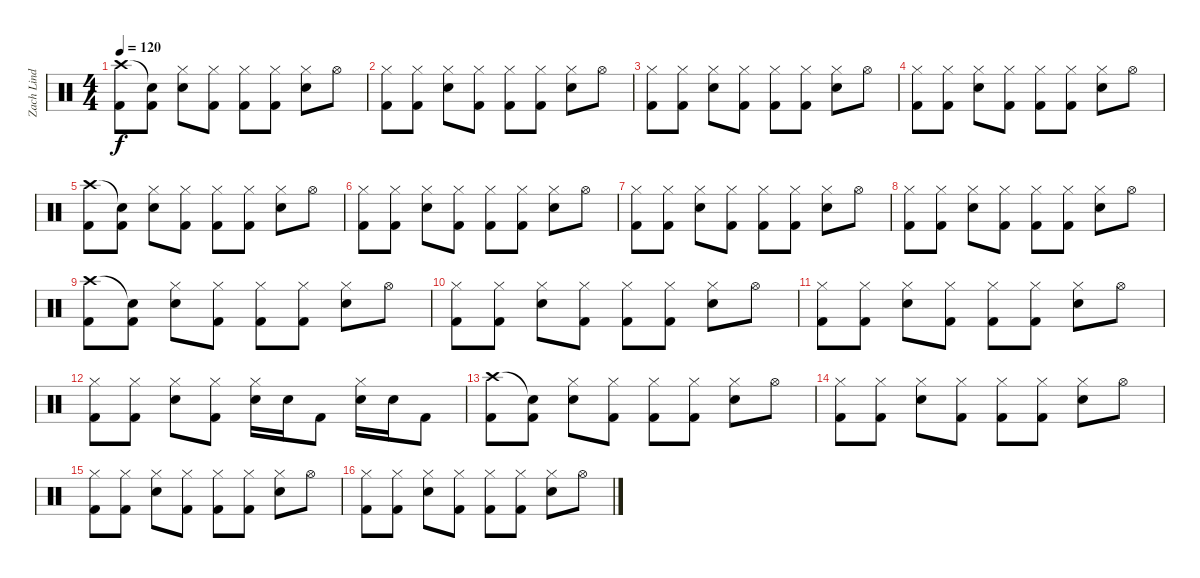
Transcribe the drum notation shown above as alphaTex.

\track ("Zach Lind (Drums)" "Zach Lind ") {instrument percussion}
\staff {score}
\articulation defaults
\ts (4 4)
\tempo 120
\clef neutral
\ks c
("Crash high (hit)" "Kick (hit) 2").8{dy f} ("Snare (hit)"{t} "Kick (hit) 2").8 ("Hi-Hat (closed)" "Electric Snare (hit)").8 ("Hi-Hat (closed)" "Kick (hit) 2").8 ("Hi-Hat (closed)" "Kick (hit) 2").8 ("Hi-Hat (closed)" "Kick (hit) 2").8 ("Hi-Hat (closed)" "Electric Snare (hit)").8 "Hi-Hat (open)".8 |
("Hi-Hat (closed)" "Kick (hit) 2").8 ("Hi-Hat (closed)" "Kick (hit) 2").8 ("Hi-Hat (closed)" "Electric Snare (hit)").8 ("Hi-Hat (closed)" "Kick (hit) 2").8 ("Hi-Hat (closed)" "Kick (hit) 2").8 ("Hi-Hat (closed)" "Kick (hit) 2").8 ("Hi-Hat (closed)" "Electric Snare (hit)").8 "Hi-Hat (open)".8 |
("Hi-Hat (closed)" "Kick (hit) 2").8 ("Hi-Hat (closed)" "Kick (hit) 2").8 ("Hi-Hat (closed)" "Electric Snare (hit)").8 ("Hi-Hat (closed)" "Kick (hit) 2").8 ("Hi-Hat (closed)" "Kick (hit) 2").8 ("Hi-Hat (closed)" "Kick (hit) 2").8 ("Hi-Hat (closed)" "Electric Snare (hit)").8 "Hi-Hat (open)".8 |
("Hi-Hat (closed)" "Kick (hit) 2").8 ("Hi-Hat (closed)" "Kick (hit) 2").8 ("Hi-Hat (closed)" "Electric Snare (hit)").8 ("Hi-Hat (closed)" "Kick (hit) 2").8 ("Hi-Hat (closed)" "Kick (hit) 2").8 ("Hi-Hat (closed)" "Kick (hit) 2").8 ("Hi-Hat (closed)" "Electric Snare (hit)").8 "Hi-Hat (open)".8 |
("Crash high (hit)" "Kick (hit) 2").8 ("Snare (hit)"{t} "Kick (hit) 2").8 ("Hi-Hat (closed)" "Electric Snare (hit)").8 ("Hi-Hat (closed)" "Kick (hit) 2").8 ("Hi-Hat (closed)" "Kick (hit) 2").8 ("Hi-Hat (closed)" "Kick (hit) 2").8 ("Hi-Hat (closed)" "Electric Snare (hit)").8 "Hi-Hat (open)".8 |
("Hi-Hat (closed)" "Kick (hit) 2").8 ("Hi-Hat (closed)" "Kick (hit) 2").8 ("Hi-Hat (closed)" "Electric Snare (hit)").8 ("Hi-Hat (closed)" "Kick (hit) 2").8 ("Hi-Hat (closed)" "Kick (hit) 2").8 ("Hi-Hat (closed)" "Kick (hit) 2").8 ("Hi-Hat (closed)" "Electric Snare (hit)").8 "Hi-Hat (open)".8 |
("Hi-Hat (closed)" "Kick (hit) 2").8 ("Hi-Hat (closed)" "Kick (hit) 2").8 ("Hi-Hat (closed)" "Electric Snare (hit)").8 ("Hi-Hat (closed)" "Kick (hit) 2").8 ("Hi-Hat (closed)" "Kick (hit) 2").8 ("Hi-Hat (closed)" "Kick (hit) 2").8 ("Hi-Hat (closed)" "Electric Snare (hit)").8 "Hi-Hat (open)".8 |
("Hi-Hat (closed)" "Kick (hit) 2").8 ("Hi-Hat (closed)" "Kick (hit) 2").8 ("Hi-Hat (closed)" "Electric Snare (hit)").8 ("Hi-Hat (closed)" "Kick (hit) 2").8 ("Hi-Hat (closed)" "Kick (hit) 2").8 ("Hi-Hat (closed)" "Kick (hit) 2").8 ("Hi-Hat (closed)" "Electric Snare (hit)").8 "Hi-Hat (open)".8 |
("Crash high (hit)" "Kick (hit) 2").8 ("Snare (hit)"{t} "Kick (hit) 2").8 ("Hi-Hat (closed)" "Electric Snare (hit)").8 ("Hi-Hat (closed)" "Kick (hit) 2").8 ("Hi-Hat (closed)" "Kick (hit) 2").8 ("Hi-Hat (closed)" "Kick (hit) 2").8 ("Hi-Hat (closed)" "Electric Snare (hit)").8 "Hi-Hat (open)".8 |
("Hi-Hat (closed)" "Kick (hit) 2").8 ("Hi-Hat (closed)" "Kick (hit) 2").8 ("Hi-Hat (closed)" "Electric Snare (hit)").8 ("Hi-Hat (closed)" "Kick (hit) 2").8 ("Hi-Hat (closed)" "Kick (hit) 2").8 ("Hi-Hat (closed)" "Kick (hit) 2").8 ("Hi-Hat (closed)" "Electric Snare (hit)").8 "Hi-Hat (open)".8 |
("Hi-Hat (closed)" "Kick (hit) 2").8 ("Hi-Hat (closed)" "Kick (hit) 2").8 ("Hi-Hat (closed)" "Electric Snare (hit)").8 ("Hi-Hat (closed)" "Kick (hit) 2").8 ("Hi-Hat (closed)" "Kick (hit) 2").8 ("Hi-Hat (closed)" "Kick (hit) 2").8 ("Hi-Hat (closed)" "Electric Snare (hit)").8 "Hi-Hat (open)".8 |
("Hi-Hat (closed)" "Kick (hit) 2").8 ("Hi-Hat (closed)" "Kick (hit) 2").8 ("Hi-Hat (closed)" "Electric Snare (hit)").8 ("Hi-Hat (closed)" "Kick (hit) 2").8 ("Hi-Hat (closed)" "Electric Snare (hit)").16 "Electric Snare (hit)".16 "Kick (hit) 2".8 ("Hi-Hat (closed)" "Electric Snare (hit)").16 "Electric Snare (hit)".16 "Kick (hit) 2".8 |
("Crash high (hit)" "Kick (hit) 2").8 ("Snare (hit)"{t} "Kick (hit) 2").8 ("Hi-Hat (closed)" "Electric Snare (hit)").8 ("Hi-Hat (closed)" "Kick (hit) 2").8 ("Hi-Hat (closed)" "Kick (hit) 2").8 ("Hi-Hat (closed)" "Kick (hit) 2").8 ("Hi-Hat (closed)" "Electric Snare (hit)").8 "Hi-Hat (open)".8 |
("Hi-Hat (closed)" "Kick (hit) 2").8 ("Hi-Hat (closed)" "Kick (hit) 2").8 ("Hi-Hat (closed)" "Electric Snare (hit)").8 ("Hi-Hat (closed)" "Kick (hit) 2").8 ("Hi-Hat (closed)" "Kick (hit) 2").8 ("Hi-Hat (closed)" "Kick (hit) 2").8 ("Hi-Hat (closed)" "Electric Snare (hit)").8 "Hi-Hat (open)".8 |
("Hi-Hat (closed)" "Kick (hit) 2").8 ("Hi-Hat (closed)" "Kick (hit) 2").8 ("Hi-Hat (closed)" "Electric Snare (hit)").8 ("Hi-Hat (closed)" "Kick (hit) 2").8 ("Hi-Hat (closed)" "Kick (hit) 2").8 ("Hi-Hat (closed)" "Kick (hit) 2").8 ("Hi-Hat (closed)" "Electric Snare (hit)").8 "Hi-Hat (open)".8 |
("Hi-Hat (closed)" "Kick (hit) 2").8 ("Hi-Hat (closed)" "Kick (hit) 2").8 ("Hi-Hat (closed)" "Electric Snare (hit)").8 ("Hi-Hat (closed)" "Kick (hit) 2").8 ("Hi-Hat (closed)" "Kick (hit) 2").8 ("Hi-Hat (closed)" "Kick (hit) 2").8 ("Hi-Hat (closed)" "Electric Snare (hit)").8 "Hi-Hat (open)".8
